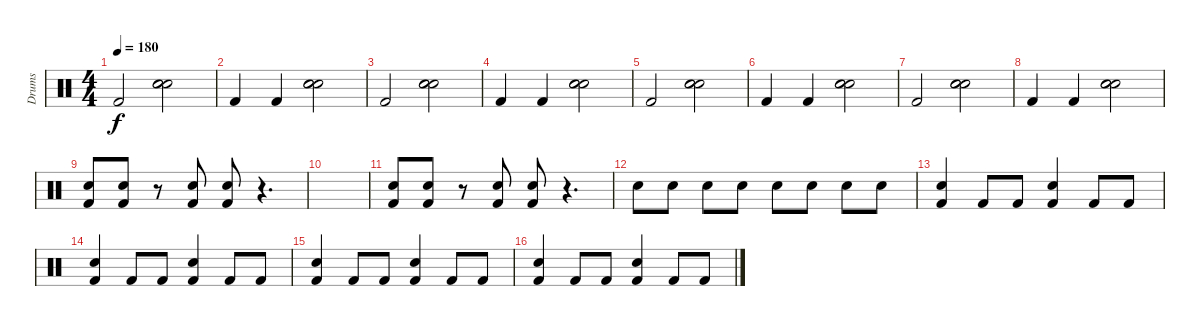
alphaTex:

\track ("Drums" "Drums") {instrument percussion}
\staff {score}
\articulation defaults
\ts (4 4)
\tempo 180
\clef neutral
\ks c "Kick (hit) 2".2{dy f}
("Snare (hit) 2" "Electric Snare (hit)" "Snare (hit)").2 |
"Kick (hit) 2".4 "Kick (hit) 2".4 ("Snare (hit) 2" "Electric Snare (hit)" "Snare (hit)").2 |
"Kick (hit) 2".2 ("Snare (hit) 2" "Electric Snare (hit)" "Snare (hit)").2 |
"Kick (hit) 2".4 "Kick (hit) 2".4 ("Snare (hit) 2" "Electric Snare (hit)" "Snare (hit)").2 |
"Kick (hit) 2".2 ("Snare (hit) 2" "Electric Snare (hit)" "Snare (hit)").2 |
"Kick (hit) 2".4 "Kick (hit) 2".4 ("Snare (hit) 2" "Electric Snare (hit)" "Snare (hit)").2 |
"Kick (hit) 2".2 ("Snare (hit) 2" "Electric Snare (hit)" "Snare (hit)").2 |
"Kick (hit) 2".4 "Kick (hit) 2".4 ("Snare (hit) 2" "Electric Snare (hit)" "Snare (hit)").2 |
("Kick (hit) 2" "Snare (hit) 2").8 ("Kick (hit) 2" "Snare (hit) 2").8 r.8 ("Kick (hit) 2" "Snare (hit) 2").8 ("Kick (hit) 2" "Snare (hit) 2").8 r.4{d} |
|
("Kick (hit) 2" "Snare (hit) 2").8 ("Kick (hit) 2" "Snare (hit) 2").8 r.8 ("Kick (hit) 2" "Snare (hit) 2").8 ("Kick (hit) 2" "Snare (hit) 2").8 r.4{d} |
"Snare (hit) 2".8 "Snare (hit) 2".8 "Snare (hit) 2".8 "Snare (hit) 2".8 "Snare (hit) 2".8 "Snare (hit) 2".8 "Snare (hit) 2".8 "Snare (hit) 2".8 |
("Kick (hit) 2" "Snare (hit) 2").4 "Kick (hit) 2".8 "Kick (hit) 2".8 ("Kick (hit) 2" "Snare (hit) 2").4 "Kick (hit) 2".8 "Kick (hit) 2".8 |
("Kick (hit) 2" "Snare (hit) 2").4 "Kick (hit) 2".8 "Kick (hit) 2".8 ("Kick (hit) 2" "Snare (hit) 2").4 "Kick (hit) 2".8 "Kick (hit) 2".8 |
("Kick (hit) 2" "Snare (hit) 2").4 "Kick (hit) 2".8 "Kick (hit) 2".8 ("Kick (hit) 2" "Snare (hit) 2").4 "Kick (hit) 2".8 "Kick (hit) 2".8 |
("Kick (hit) 2" "Snare (hit) 2").4 "Kick (hit) 2".8 "Kick (hit) 2".8 ("Kick (hit) 2" "Snare (hit) 2").4 "Kick (hit) 2".8 "Kick (hit) 2".8
